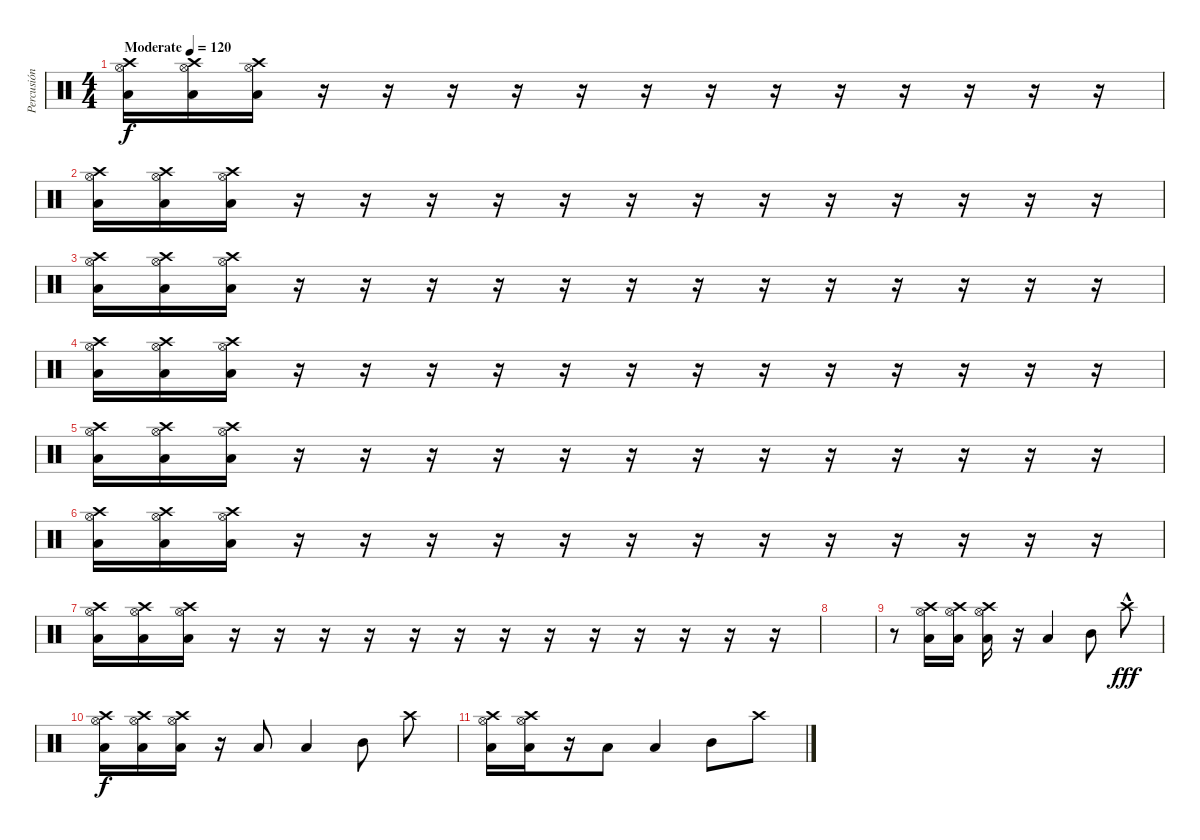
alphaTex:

\track ("Percusión" "Percusión") {instrument percussion}
\staff {score}
\articulation defaults
\ts (4 4)
\tempo (120 "Moderate")
\clef neutral
\ks c
("Hi-Hat (open)" "Crash high (hit)" "Low Tom (hit)").16{dy f} ("Hi-Hat (open)" "Crash high (hit)" "Low Tom (hit)").16 ("Hi-Hat (open)" "Crash high (hit)" "Low Tom (hit)").16 r.16 r.16 r.16 r.16 r.16 r.16 r.16 r.16 r.16 r.16 r.16 r.16 r.16 |
("Hi-Hat (open)" "Crash high (hit)" "Low Tom (hit)").16 ("Hi-Hat (open)" "Crash high (hit)" "Low Tom (hit)").16 ("Hi-Hat (open)" "Crash high (hit)" "Low Tom (hit)").16 r.16 r.16 r.16 r.16 r.16 r.16 r.16 r.16 r.16 r.16 r.16 r.16 r.16 |
("Hi-Hat (open)" "Crash high (hit)" "Low Tom (hit)").16 ("Hi-Hat (open)" "Crash high (hit)" "Low Tom (hit)").16 ("Hi-Hat (open)" "Crash high (hit)" "Low Tom (hit)").16 r.16 r.16 r.16 r.16 r.16 r.16 r.16 r.16 r.16 r.16 r.16 r.16 r.16 |
("Hi-Hat (open)" "Crash high (hit)" "Low Tom (hit)").16 ("Hi-Hat (open)" "Crash high (hit)" "Low Tom (hit)").16 ("Hi-Hat (open)" "Crash high (hit)" "Low Tom (hit)").16 r.16 r.16 r.16 r.16 r.16 r.16 r.16 r.16 r.16 r.16 r.16 r.16 r.16 |
("Hi-Hat (open)" "Crash high (hit)" "Low Tom (hit)").16 ("Hi-Hat (open)" "Crash high (hit)" "Low Tom (hit)").16 ("Hi-Hat (open)" "Crash high (hit)" "Low Tom (hit)").16 r.16 r.16 r.16 r.16 r.16 r.16 r.16 r.16 r.16 r.16 r.16 r.16 r.16 |
("Hi-Hat (open)" "Crash high (hit)" "Low Tom (hit)").16 ("Hi-Hat (open)" "Crash high (hit)" "Low Tom (hit)").16 ("Hi-Hat (open)" "Crash high (hit)" "Low Tom (hit)").16 r.16 r.16 r.16 r.16 r.16 r.16 r.16 r.16 r.16 r.16 r.16 r.16 r.16 |
("Hi-Hat (open)" "Crash high (hit)" "Low Tom (hit)").16 ("Hi-Hat (open)" "Crash high (hit)" "Low Tom (hit)").16 ("Hi-Hat (open)" "Crash high (hit)" "Low Tom (hit)").16 r.16 r.16 r.16 r.16 r.16 r.16 r.16 r.16 r.16 r.16 r.16 r.16 r.16 |
|
r.8 ("Hi-Hat (open)" "Crash high (hit)" "Low Tom (hit)").16 ("Hi-Hat (open)" "Crash high (hit)" "Low Tom (hit)").16 ("Hi-Hat (open)" "Crash high (hit)" "Low Tom (hit)").16 r.16 "Low Tom (hit)".4 "Mid Tom (hit)".8 "Crash high (hit)"{hac}.8{dy fff} |
("Hi-Hat (open)" "Crash high (hit)" "Low Tom (hit)").16{dy f} ("Hi-Hat (open)" "Crash high (hit)" "Low Tom (hit)").16 ("Hi-Hat (open)" "Crash high (hit)" "Low Tom (hit)").16 r.16 "Low Tom (hit)".8 "Low Tom (hit)".4 "Mid Tom (hit)".8 "Crash high (hit)".8 |
("Hi-Hat (open)" "Crash high (hit)" "Low Tom (hit)").16 ("Hi-Hat (open)" "Crash high (hit)" "Low Tom (hit)").16 r.16 "Low Tom (hit)".8 "Low Tom (hit)".4 "Mid Tom (hit)".8 "Crash high (hit)".8
